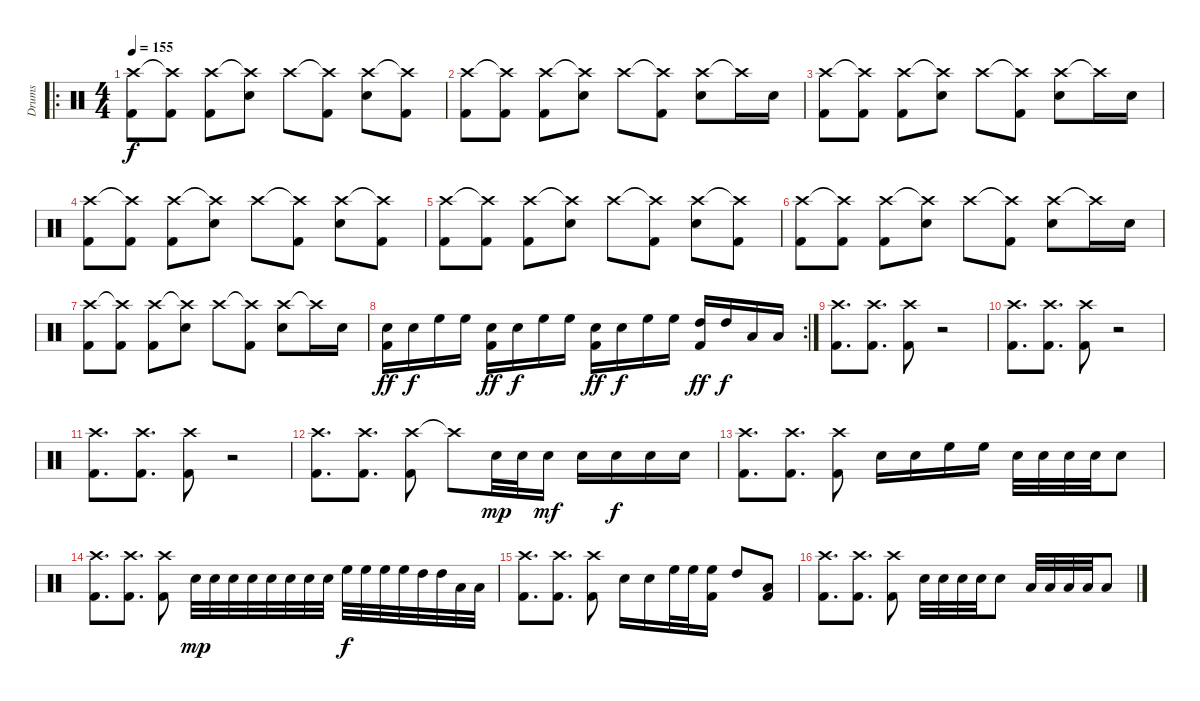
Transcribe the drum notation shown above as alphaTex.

\track ("Drums" "Drums") {instrument percussion}
\staff {score}
\articulation defaults
\ro
\ts (4 4)
\tempo 155
\clef neutral
\ks c
("Crash high (hit)" "Kick (hit) 2").8{dy f} ("Crash high (hit)"{t} "Kick (hit) 2").8 ("Crash high (hit)" "Kick (hit) 2").8 ("Crash high (hit)"{t} "Electric Snare (hit)").8 "Crash high (hit)".8 ("Crash high (hit)"{t} "Kick (hit) 2").8 ("Crash high (hit)" "Electric Snare (hit)").8 ("Crash high (hit)"{t} "Kick (hit) 2").8 |
("Crash high (hit)" "Kick (hit) 2").8 ("Crash high (hit)"{t} "Kick (hit) 2").8 ("Crash high (hit)" "Kick (hit) 2").8 ("Crash high (hit)"{t} "Electric Snare (hit)").8 "Crash high (hit)".8 ("Crash high (hit)"{t} "Kick (hit) 2").8 ("Crash high (hit)" "Electric Snare (hit)").8 "Crash high (hit)"{t}.16 "Electric Snare (hit)".16 |
("Crash high (hit)" "Kick (hit) 2").8 ("Crash high (hit)"{t} "Kick (hit) 2").8 ("Crash high (hit)" "Kick (hit) 2").8 ("Crash high (hit)"{t} "Electric Snare (hit)").8 "Crash high (hit)".8 ("Crash high (hit)"{t} "Kick (hit) 2").8 ("Crash high (hit)" "Electric Snare (hit)").8 "Crash high (hit)"{t}.16 "Electric Snare (hit)".16 |
("Crash high (hit)" "Kick (hit) 2").8 ("Crash high (hit)"{t} "Kick (hit) 2").8 ("Crash high (hit)" "Kick (hit) 2").8 ("Crash high (hit)"{t} "Electric Snare (hit)").8 "Crash high (hit)".8 ("Crash high (hit)"{t} "Kick (hit) 2").8 ("Crash high (hit)" "Electric Snare (hit)").8 ("Crash high (hit)"{t} "Kick (hit) 2").8 |
("Crash high (hit)" "Kick (hit) 2").8 ("Crash high (hit)"{t} "Kick (hit) 2").8 ("Crash high (hit)" "Kick (hit) 2").8 ("Crash high (hit)"{t} "Electric Snare (hit)").8 "Crash high (hit)".8 ("Crash high (hit)"{t} "Kick (hit) 2").8 ("Crash high (hit)" "Electric Snare (hit)").8 ("Crash high (hit)"{t} "Kick (hit) 2").8 |
("Crash high (hit)" "Kick (hit) 2").8 ("Crash high (hit)"{t} "Kick (hit) 2").8 ("Crash high (hit)" "Kick (hit) 2").8 ("Crash high (hit)"{t} "Electric Snare (hit)").8 "Crash high (hit)".8 ("Crash high (hit)"{t} "Kick (hit) 2").8 ("Crash high (hit)" "Electric Snare (hit)").8 "Crash high (hit)"{t}.16 "Electric Snare (hit)".16 |
("Crash high (hit)" "Kick (hit) 2").8 ("Crash high (hit)"{t} "Kick (hit) 2").8 ("Crash high (hit)" "Kick (hit) 2").8 ("Crash high (hit)"{t} "Electric Snare (hit)").8 "Crash high (hit)".8 ("Crash high (hit)"{t} "Kick (hit) 2").8 ("Crash high (hit)" "Electric Snare (hit)").8 "Crash high (hit)"{t}.16 "Electric Snare (hit)".16 |
\rc 2
("Electric Snare (hit)" "Kick (hit) 2").16{dy ff} "Electric Snare (hit)".16{dy f} "High Floor Tom (hit)".16 "High Floor Tom (hit)".16 ("Electric Snare (hit)" "Kick (hit) 2").16{dy ff} "Electric Snare (hit)".16{dy f} "High Floor Tom (hit)".16 "High Floor Tom (hit)".16 ("Electric Snare (hit)" "Kick (hit) 2").16{dy ff} "Electric Snare (hit)".16{dy f} "High Floor Tom (hit)".16 "High Floor Tom (hit)".16 ("High Tom (hit)" "Kick (hit) 2").16{dy ff} "High Tom (hit)".16{dy f} "Low Floor Tom (hit)".16 "Low Floor Tom (hit)".16 |
("Crash high (hit)" "Kick (hit) 2").8{d} ("Crash high (hit)" "Kick (hit) 2").8{d} ("Crash high (hit)" "Kick (hit) 2").8 r.2 |
("Crash high (hit)" "Kick (hit) 2").8{d} ("Crash high (hit)" "Kick (hit) 2").8{d} ("Crash high (hit)" "Kick (hit) 2").8 r.2 |
("Crash high (hit)" "Kick (hit) 2").8{d} ("Crash high (hit)" "Kick (hit) 2").8{d} ("Crash high (hit)" "Kick (hit) 2").8 r.2 |
("Crash high (hit)" "Kick (hit) 2").8{d} ("Crash high (hit)" "Kick (hit) 2").8{d} ("Crash high (hit)" "Kick (hit) 2").8 "Crash high (hit)"{t}.8 "Electric Snare (hit)".32{dy mp} "Electric Snare (hit)".32 "Electric Snare (hit)".16{dy mf} "Electric Snare (hit)".16 "Electric Snare (hit)".16{dy f} "Electric Snare (hit)".16 "Electric Snare (hit)".16 |
("Crash high (hit)" "Kick (hit) 2").8{d} ("Crash high (hit)" "Kick (hit) 2").8{d} ("Crash high (hit)" "Kick (hit) 2").8 "Electric Snare (hit)".16 "Electric Snare (hit)".16 "High Floor Tom (hit)".16 "High Floor Tom (hit)".16 "Electric Snare (hit)".32 "Electric Snare (hit)".32 "Electric Snare (hit)".32 "Electric Snare (hit)".32 "Electric Snare (hit)".8 |
("Crash high (hit)" "Kick (hit) 2").8{d} ("Crash high (hit)" "Kick (hit) 2").8{d} ("Crash high (hit)" "Kick (hit) 2").8 "Electric Snare (hit)".32{dy mp} "Electric Snare (hit)".32 "Electric Snare (hit)".32 "Electric Snare (hit)".32 "Electric Snare (hit)".32 "Electric Snare (hit)".32 "Electric Snare (hit)".32 "Electric Snare (hit)".32 "High Floor Tom (hit)".32{dy f} "High Floor Tom (hit)".32 "High Floor Tom (hit)".32 "High Floor Tom (hit)".32 "High Tom (hit)".32 "High Tom (hit)".32 "Low Floor Tom (hit)".32 "Low Floor Tom (hit)".32 |
("Crash high (hit)" "Kick (hit) 2").8{d} ("Crash high (hit)" "Kick (hit) 2").8{d} ("Crash high (hit)" "Kick (hit) 2").8 "Electric Snare (hit)".16 "Electric Snare (hit)".16 "High Floor Tom (hit)".32 "High Floor Tom (hit)".32 ("High Floor Tom (hit)" "Kick (hit) 2").16 "High Tom (hit)".8 ("Low Floor Tom (hit)" "Kick (hit) 2").8 |
("Crash high (hit)" "Kick (hit) 2").8{d} ("Crash high (hit)" "Kick (hit) 2").8{d} ("Crash high (hit)" "Kick (hit) 2").8 "Electric Snare (hit)".32 "Electric Snare (hit)".32 "Electric Snare (hit)".32 "Electric Snare (hit)".32 "Electric Snare (hit)".8 "Low Floor Tom (hit)".32 "Low Floor Tom (hit)".32 "Low Floor Tom (hit)".32 "Low Floor Tom (hit)".32 "Low Floor Tom (hit)".8
